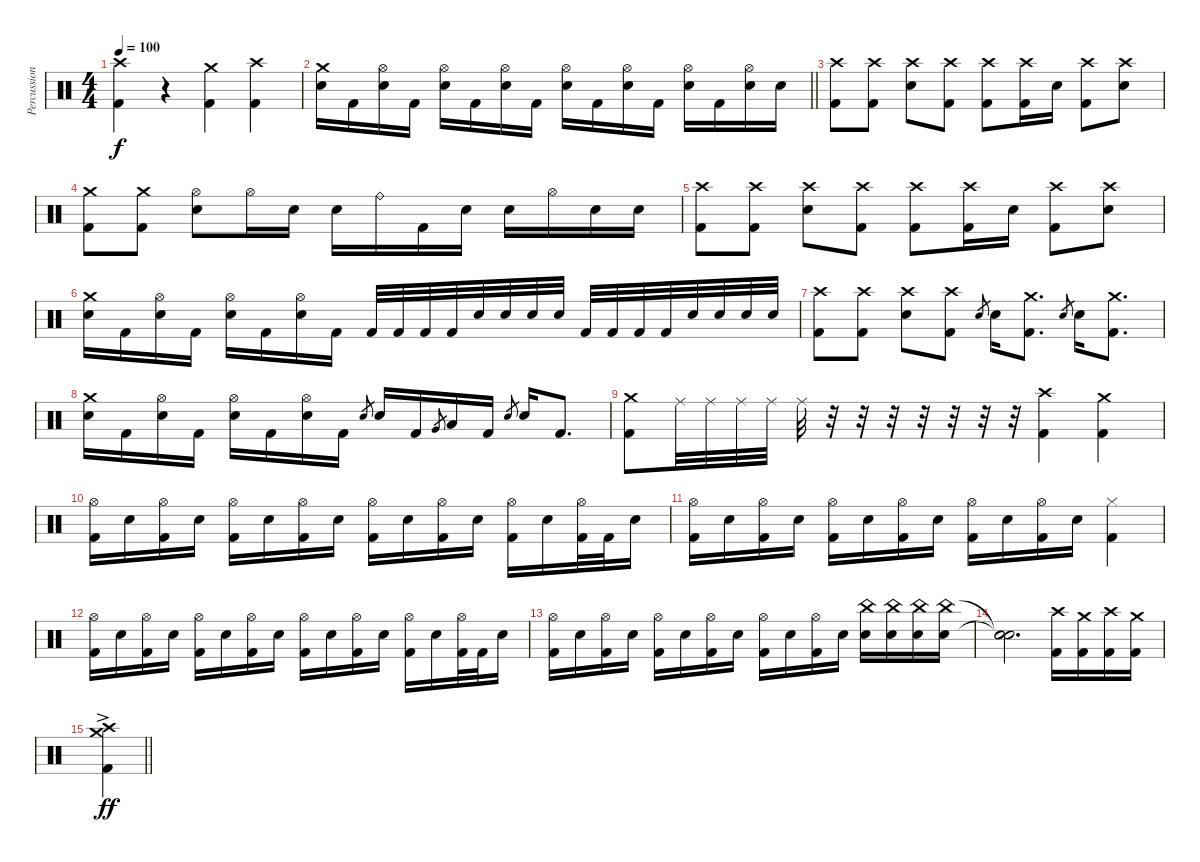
\track ("Percussion (Moose)" "Percussion") {instrument percussion}
\staff {score}
\articulation defaults
\ts (4 4)
\tempo 100
\clef neutral
\ks c
("Crash high (hit)" "Kick (hit) 2").4{dy f volume 13} r.4 ("Crash medium (hit)" "Kick (hit) 2").4 ("Crash high (hit)" "Kick (hit) 2").4{volume 13} |
\barLineRight lightlight
("Crash medium (hit)" "Electric Snare (hit)").16 "Kick (hit) 2".16 ("Hi-Hat (open)" "Electric Snare (hit)").16 "Kick (hit) 2".16 ("Hi-Hat (open)" "Electric Snare (hit)").16 "Kick (hit) 2".16 ("Hi-Hat (open)" "Electric Snare (hit)").16 "Kick (hit) 2".16 ("Hi-Hat (open)" "Electric Snare (hit)").16 "Kick (hit) 2".16 ("Hi-Hat (open)" "Electric Snare (hit)").16 "Kick (hit) 2".16 ("Hi-Hat (open)" "Electric Snare (hit)").16 "Kick (hit) 2".16 ("Hi-Hat (open)" "Electric Snare (hit)").16 "Electric Snare (hit)".16 |
("Crash high (hit)" "Kick (hit) 2").8 ("Crash high (hit)" "Kick (hit) 2").8 ("Crash high (hit)" "Electric Snare (hit)").8 ("Crash high (hit)" "Kick (hit) 2").8 ("Crash high (hit)" "Kick (hit) 2").8 ("Crash high (hit)" "Kick (hit) 2").16 "Electric Snare (hit)".16 ("Crash high (hit)" "Kick (hit) 2").8 ("Crash high (hit)" "Electric Snare (hit)").8 |
("Crash medium (hit)" "Kick (hit) 2").8 ("Crash medium (hit)" "Kick (hit) 2").8 ("Hi-Hat (open)" "Electric Snare (hit)").8 "Hi-Hat (open)".16 "Electric Snare (hit)".16 "Electric Snare (hit)".16 "Ride (bell)".16 "Kick (hit) 2".16 "Electric Snare (hit)".16 "Electric Snare (hit)".16 "Hi-Hat (open)".16 "Electric Snare (hit)".16 "Electric Snare (hit)".16 |
("Crash high (hit)" "Kick (hit) 2").8 ("Crash high (hit)" "Kick (hit) 2").8 ("Crash high (hit)" "Electric Snare (hit)").8 ("Crash high (hit)" "Kick (hit) 2").8 ("Crash high (hit)" "Kick (hit) 2").8 ("Crash high (hit)" "Kick (hit) 2").16 "Electric Snare (hit)".16 ("Crash high (hit)" "Kick (hit) 2").8 ("Crash high (hit)" "Electric Snare (hit)").8 |
("Crash medium (hit)" "Electric Snare (hit)").16 "Kick (hit) 2".16 ("Hi-Hat (open)" "Electric Snare (hit)").16 "Kick (hit) 2".16 ("Hi-Hat (open)" "Electric Snare (hit)").16 "Kick (hit) 2".16 ("Hi-Hat (open)" "Electric Snare (hit)").16 "Kick (hit) 2".16 "Kick (hit) 2".32 "Kick (hit) 2".32 "Kick (hit) 2".32 "Kick (hit) 2".32 "Electric Snare (hit)".32 "Electric Snare (hit)".32 "Electric Snare (hit)".32 "Electric Snare (hit)".32 "Kick (hit) 2".32 "Kick (hit) 2".32 "Kick (hit) 2".32 "Kick (hit) 2".32 "Electric Snare (hit)".32 "Electric Snare (hit)".32 "Electric Snare (hit)".32 "Electric Snare (hit)".32 |
("Crash high (hit)" "Kick (hit) 2").8 ("Crash high (hit)" "Kick (hit) 2").8 ("Crash high (hit)" "Electric Snare (hit)").8 ("Crash high (hit)" "Kick (hit) 2").8 "Electric Snare (hit)".8{gr} "Electric Snare (hit)".16 ("Crash medium (hit)" "Kick (hit) 2").8{d} "Electric Snare (hit)".8{gr} "Electric Snare (hit)".16 ("Crash medium (hit)" "Kick (hit) 2").8{d} |
("Crash medium (hit)" "Electric Snare (hit)").16 "Kick (hit) 2".16 ("Hi-Hat (open)" "Electric Snare (hit)").16 "Kick (hit) 2".16 ("Hi-Hat (open)" "Electric Snare (hit)").16 "Kick (hit) 2".16 ("Hi-Hat (open)" "Electric Snare (hit)").16 "Kick (hit) 2".16 "Electric Snare (hit)".8{gr} "Electric Snare (hit)".16 "Kick (hit) 2".16 "Very Low Tom (hit)".8{gr} "Low Floor Tom (hit)".16 "Kick (hit) 2".16 "Electric Snare (hit)".8{gr} "Electric Snare (hit)".16 "Kick (hit) 2".8{d} |
("Crash medium (hit)" "Kick (hit) 2").8 "Ride (middle)".32 "Ride (middle)".32 "Ride (middle)".32 "Ride (middle)".32 "Ride (middle)".32 r.32 r.32 r.32 r.32 r.32 r.32 r.32 ("Crash high (hit)" "Kick (hit) 2").4 ("Crash medium (hit)" "Kick (hit) 2").4 |
("Hi-Hat (open)" "Kick (hit) 2").16 "Electric Snare (hit)".16 ("Hi-Hat (open)" "Kick (hit) 2").16 "Electric Snare (hit)".16 ("Hi-Hat (open)" "Kick (hit) 2").16 "Electric Snare (hit)".16 ("Hi-Hat (open)" "Kick (hit) 2").16 "Electric Snare (hit)".16 ("Hi-Hat (open)" "Kick (hit) 2").16 "Electric Snare (hit)".16 ("Hi-Hat (open)" "Kick (hit) 2").16 "Electric Snare (hit)".16 ("Hi-Hat (open)" "Kick (hit) 2").16 "Electric Snare (hit)".16 ("Hi-Hat (open)" "Kick (hit) 2").32 "Kick (hit) 2".32 "Electric Snare (hit)".16 |
("Hi-Hat (open)" "Kick (hit) 2").16 "Electric Snare (hit)".16 ("Hi-Hat (open)" "Kick (hit) 2").16 "Electric Snare (hit)".16 ("Hi-Hat (open)" "Kick (hit) 2").16 "Electric Snare (hit)".16 ("Hi-Hat (open)" "Kick (hit) 2").16 "Electric Snare (hit)".16 ("Hi-Hat (open)" "Kick (hit) 2").16 "Electric Snare (hit)".16 ("Hi-Hat (open)" "Kick (hit) 2").16 "Electric Snare (hit)".16 ("Hi-Hat (closed)" "Kick (hit) 2").4 |
("Hi-Hat (open)" "Kick (hit) 2").16 "Electric Snare (hit)".16 ("Hi-Hat (open)" "Kick (hit) 2").16 "Electric Snare (hit)".16 ("Hi-Hat (open)" "Kick (hit) 2").16 "Electric Snare (hit)".16 ("Hi-Hat (open)" "Kick (hit) 2").16 "Electric Snare (hit)".16 ("Hi-Hat (open)" "Kick (hit) 2").16 "Electric Snare (hit)".16 ("Hi-Hat (open)" "Kick (hit) 2").16 "Electric Snare (hit)".16 ("Hi-Hat (open)" "Kick (hit) 2").16 "Electric Snare (hit)".16 ("Hi-Hat (open)" "Kick (hit) 2").32 "Kick (hit) 2".32 "Electric Snare (hit)".16 |
("Hi-Hat (open)" "Kick (hit) 2").16 "Electric Snare (hit)".16 ("Hi-Hat (open)" "Kick (hit) 2").16 "Electric Snare (hit)".16 ("Hi-Hat (open)" "Kick (hit) 2").16 "Electric Snare (hit)".16 ("Hi-Hat (open)" "Kick (hit) 2").16 "Electric Snare (hit)".16 ("Hi-Hat (open)" "Kick (hit) 2").16 "Electric Snare (hit)".16 ("Hi-Hat (open)" "Kick (hit) 2").16 "Electric Snare (hit)".16 ("China (hit)" "Electric Snare (hit)").16 ("China (hit)" "Electric Snare (hit)").16 ("China (hit)" "Electric Snare (hit)").16 ("China (hit)" "Electric Snare (hit)").16 |
("Snare (hit)"{t} "Snare (hit)"{t} "Snare (hit)").2{d} ("Crash high (hit)" "Kick (hit) 2").16 ("Crash medium (hit)" "Kick (hit) 2").16 ("Crash high (hit)" "Kick (hit) 2").16 ("Crash medium (hit)" "Kick (hit) 2").16 |
\barLineRight lightlight
("Crash high (hit)" "Crash medium (hit)"{ac} "Kick (hit) 2").4{dy ff}
